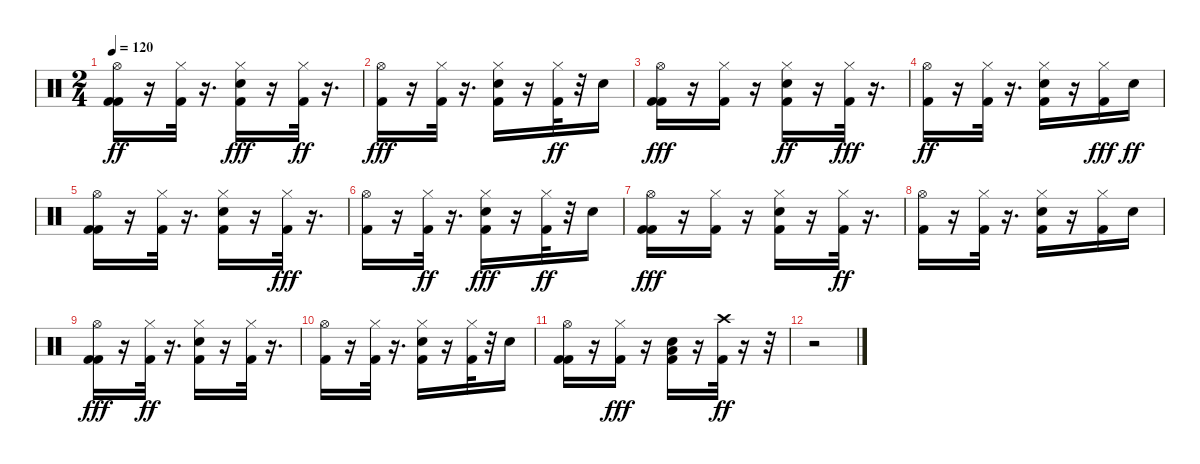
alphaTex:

\track "" {instrument percussion}
\staff {score}
\articulation defaults
\ts (2 4)
\tempo 120
\clef neutral
\ks c
("Hi-Hat (open)" "Kick (hit) 2" "Kick (hit) 2").16{dy ff} r.16 ("Hi-Hat (closed)" "Kick (hit) 2").32 r.16{d} ("Snare (hit) 2" "Kick (hit) 2" "Hi-Hat (closed)").16{dy fff} r.16 ("Hi-Hat (closed)" "Kick (hit) 2").32{dy ff} r.16{d} |
("Kick (hit) 2" "Hi-Hat (open)").16{dy fff} r.16 ("Kick (hit) 2" "Hi-Hat (closed)").32 r.16{d} ("Kick (hit) 2" "Snare (hit) 2" "Hi-Hat (closed)").16 r.16 ("Hi-Hat (closed)" "Kick (hit) 2").32{dy ff} r.32 "Snare (hit) 2".16 |
("Kick (hit) 2" "Kick (hit) 2" "Hi-Hat (open)").16{dy fff} r.16 ("Kick (hit) 2" "Hi-Hat (closed)").16 r.16 ("Hi-Hat (closed)" "Kick (hit) 2" "Snare (hit) 2").16{dy ff} r.16 ("Kick (hit) 2" "Hi-Hat (closed)").32{dy fff} r.16{d} |
("Hi-Hat (open)" "Kick (hit) 2").16{dy ff} r.16 ("Hi-Hat (closed)" "Kick (hit) 2").32 r.16{d} ("Hi-Hat (closed)" "Snare (hit) 2" "Kick (hit) 2").16 r.16 ("Kick (hit) 2" "Hi-Hat (closed)").16{dy fff} "Snare (hit) 2".16{dy ff} |
("Kick (hit) 2" "Hi-Hat (open)" "Kick (hit) 2").16 r.16 ("Hi-Hat (closed)" "Kick (hit) 2").32 r.16{d} ("Kick (hit) 2" "Hi-Hat (closed)" "Snare (hit) 2").16 r.16 ("Kick (hit) 2" "Hi-Hat (closed)").32{dy fff} r.16{d} |
("Kick (hit) 2" "Hi-Hat (open)").16 r.16 ("Hi-Hat (closed)" "Kick (hit) 2").32{dy ff} r.16{d} ("Snare (hit) 2" "Kick (hit) 2" "Hi-Hat (closed)").16{dy fff} r.16 ("Hi-Hat (closed)" "Kick (hit) 2").32{dy ff} r.32 "Snare (hit) 2".16 |
("Kick (hit) 2" "Kick (hit) 2" "Hi-Hat (open)").16{dy fff} r.16 ("Kick (hit) 2" "Hi-Hat (closed)").16 r.16 ("Snare (hit) 2" "Kick (hit) 2" "Hi-Hat (closed)").16 r.16 ("Hi-Hat (closed)" "Kick (hit) 2").32{dy ff} r.16{d} |
("Hi-Hat (open)" "Kick (hit) 2").16 r.16 ("Hi-Hat (closed)" "Kick (hit) 2").32 r.16{d} ("Snare (hit) 2" "Hi-Hat (closed)" "Kick (hit) 2").16 r.16 ("Hi-Hat (closed)" "Kick (hit) 2").16 "Snare (hit) 2".16 |
("Kick (hit) 2" "Kick (hit) 2" "Hi-Hat (open)").16{dy fff} r.16 ("Hi-Hat (closed)" "Kick (hit) 2").32{dy ff} r.16{d} ("Snare (hit) 2" "Hi-Hat (closed)" "Kick (hit) 2").16 r.16 ("Hi-Hat (closed)" "Kick (hit) 2").32 r.16{d} |
("Hi-Hat (open)" "Kick (hit) 2").16 r.16 ("Hi-Hat (closed)" "Kick (hit) 2").32 r.16{d} ("Snare (hit) 2" "Hi-Hat (closed)" "Kick (hit) 2").16 r.16 ("Hi-Hat (closed)" "Kick (hit) 2").32 r.32 "Snare (hit) 2".16 |
("Kick (hit) 2" "Hi-Hat (open)" "Kick (hit) 2").16 r.16 ("Kick (hit) 2" "Hi-Hat (closed)").16{dy fff} r.16 ("Snare (hit) 2" "Kick (hit) 2" "Low Floor Tom (hit)").16 r.16 ("Crash high (hit)" "Kick (hit) 2").32{dy ff} r.16 r.32 |
r.2
